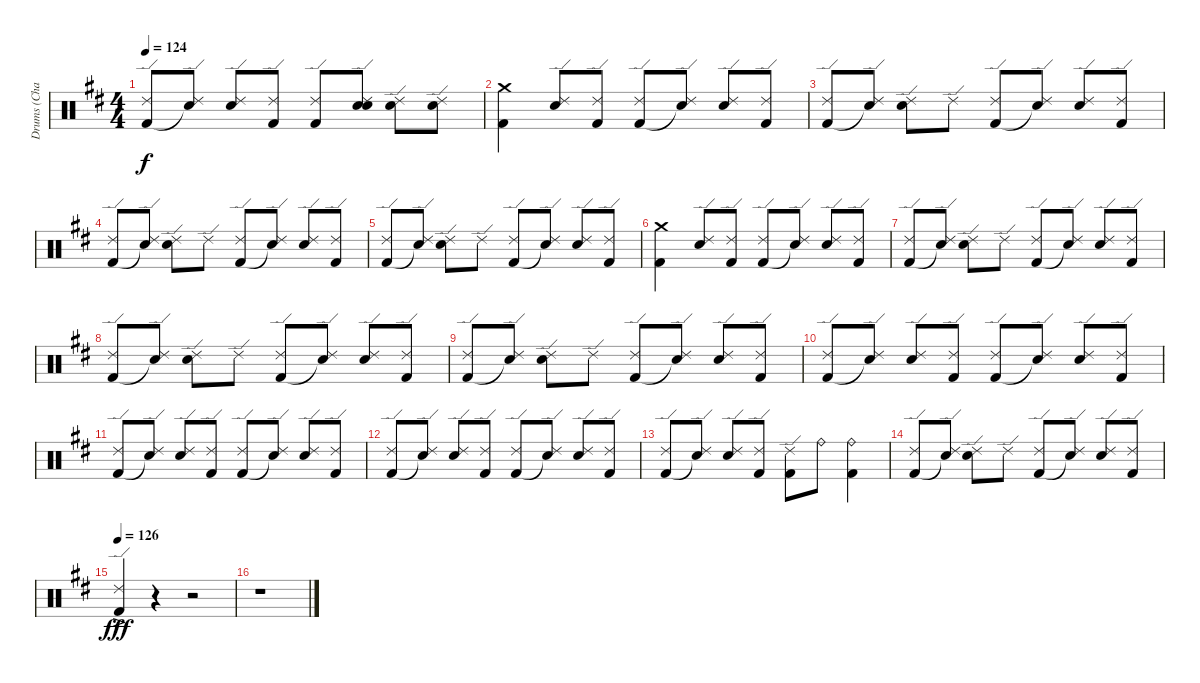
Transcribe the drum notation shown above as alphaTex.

\track ("Drums (Charlie)" "Drums (Cha") {instrument percussion}
\staff {score}
\articulation defaults
\ts (4 4)
\tempo 124
\clef neutral
\ks d
("Ride (edge) 2" "Kick (hit) 2").8{dy f} ("Ride (edge) 2" "Snare (hit)"{t}).8 ("Ride (edge) 2" "Snare (hit) 2").8 ("Ride (edge) 2" "Kick (hit) 2").8 ("Ride (edge) 2" "Kick (hit) 2").8 ("Ride (edge) 2" "Snare (hit) 2" "Snare (hit)").8 ("Ride (edge) 2" "Snare (hit) 2").8 ("Ride (edge) 2" "Snare (hit) 2").8 |
("Crash medium (hit)" "Kick (hit) 2").4 ("Ride (edge) 2" "Snare (hit) 2").8 ("Ride (edge) 2" "Kick (hit) 2").8 ("Ride (edge) 2" "Kick (hit) 2").8 ("Ride (edge) 2" "Snare (hit)"{t}).8 ("Ride (edge) 2" "Snare (hit) 2").8 ("Ride (edge) 2" "Kick (hit) 2").8 |
("Ride (edge) 2" "Kick (hit) 2").8 ("Ride (edge) 2" "Snare (hit)"{t}).8 ("Ride (edge) 2" "Snare (hit) 2").8 "Ride (edge) 2".8 ("Ride (edge) 2" "Kick (hit) 2").8 ("Ride (edge) 2" "Snare (hit)"{t}).8 ("Ride (edge) 2" "Snare (hit) 2").8 ("Ride (edge) 2" "Kick (hit) 2").8 |
("Ride (edge) 2" "Kick (hit) 2").8 ("Ride (edge) 2" "Snare (hit)"{t}).8 ("Ride (edge) 2" "Snare (hit) 2").8 "Ride (edge) 2".8 ("Ride (edge) 2" "Kick (hit) 2").8 ("Ride (edge) 2" "Snare (hit)"{t}).8 ("Ride (edge) 2" "Snare (hit) 2").8 ("Ride (edge) 2" "Kick (hit) 2").8 |
("Ride (edge) 2" "Kick (hit) 2").8 ("Ride (edge) 2" "Snare (hit)"{t}).8 ("Ride (edge) 2" "Snare (hit) 2").8 "Ride (edge) 2".8 ("Ride (edge) 2" "Kick (hit) 2").8 ("Ride (edge) 2" "Snare (hit)"{t}).8 ("Ride (edge) 2" "Snare (hit) 2").8 ("Ride (edge) 2" "Kick (hit) 2").8 |
("Crash medium (hit)" "Kick (hit) 2").4 ("Ride (edge) 2" "Snare (hit) 2").8 ("Ride (edge) 2" "Kick (hit) 2").8 ("Ride (edge) 2" "Kick (hit) 2").8 ("Ride (edge) 2" "Snare (hit)"{t}).8 ("Ride (edge) 2" "Snare (hit) 2").8 ("Ride (edge) 2" "Kick (hit) 2").8 |
("Ride (edge) 2" "Kick (hit) 2").8 ("Ride (edge) 2" "Snare (hit)"{t}).8 ("Ride (edge) 2" "Snare (hit) 2").8 "Ride (edge) 2".8 ("Ride (edge) 2" "Kick (hit) 2").8 ("Ride (edge) 2" "Snare (hit)"{t}).8 ("Ride (edge) 2" "Snare (hit) 2").8 ("Ride (edge) 2" "Kick (hit) 2").8 |
("Ride (edge) 2" "Kick (hit) 2").8 ("Ride (edge) 2" "Snare (hit)"{t}).8 ("Ride (edge) 2" "Snare (hit) 2").8 "Ride (edge) 2".8 ("Ride (edge) 2" "Kick (hit) 2").8 ("Ride (edge) 2" "Snare (hit)"{t}).8 ("Ride (edge) 2" "Snare (hit) 2").8 ("Ride (edge) 2" "Kick (hit) 2").8 |
("Ride (edge) 2" "Kick (hit) 2").8 ("Ride (edge) 2" "Snare (hit)"{t}).8 ("Ride (edge) 2" "Snare (hit) 2").8 "Ride (edge) 2".8 ("Ride (edge) 2" "Kick (hit) 2").8 ("Ride (edge) 2" "Snare (hit)"{t}).8 ("Ride (edge) 2" "Snare (hit) 2").8 ("Ride (edge) 2" "Kick (hit) 2").8 |
("Ride (edge) 2" "Kick (hit) 2").8 ("Ride (edge) 2" "Snare (hit)"{t}).8 ("Ride (edge) 2" "Snare (hit) 2").8 ("Ride (edge) 2" "Kick (hit) 2").8 ("Ride (edge) 2" "Kick (hit) 2").8 ("Ride (edge) 2" "Snare (hit)"{t}).8 ("Ride (edge) 2" "Snare (hit) 2").8 ("Ride (edge) 2" "Kick (hit) 2").8 |
("Ride (edge) 2" "Kick (hit) 2").8 ("Ride (edge) 2" "Snare (hit)"{t}).8 ("Ride (edge) 2" "Snare (hit) 2").8 ("Ride (edge) 2" "Kick (hit) 2").8 ("Ride (edge) 2" "Kick (hit) 2").8 ("Ride (edge) 2" "Snare (hit)"{t}).8 ("Ride (edge) 2" "Snare (hit) 2").8 ("Ride (edge) 2" "Kick (hit) 2").8 |
("Ride (edge) 2" "Kick (hit) 2").8 ("Ride (edge) 2" "Snare (hit)"{t}).8 ("Ride (edge) 2" "Snare (hit) 2").8 ("Ride (edge) 2" "Kick (hit) 2").8 ("Ride (edge) 2" "Kick (hit) 2").8 ("Ride (edge) 2" "Snare (hit)"{t}).8 ("Ride (edge) 2" "Snare (hit) 2").8 ("Ride (edge) 2" "Kick (hit) 2").8 |
("Ride (edge) 2" "Kick (hit) 2").8 ("Ride (edge) 2" "Snare (hit)"{t}).8 ("Ride (edge) 2" "Snare (hit) 2").8 ("Ride (edge) 2" "Kick (hit) 2").8 ("Ride (edge) 2" "Kick (hit) 2").8 "Ride (bell)".8 ("Ride (bell)" "Kick (hit) 2").4 |
("Ride (edge) 2" "Kick (hit) 2").8 ("Ride (edge) 2" "Snare (hit)"{t}).8 ("Ride (edge) 2" "Snare (hit) 2").8 "Ride (edge) 2".8 ("Ride (edge) 2" "Kick (hit) 2").8 ("Ride (edge) 2" "Snare (hit)"{t}).8 ("Ride (edge) 2" "Snare (hit) 2").8 ("Ride (edge) 2" "Kick (hit) 2").8 |
\tempo 126
("Ride (edge) 2"{ac} "Kick (hit) 2").4{dy fff} r.4 r.2 |
r.1
